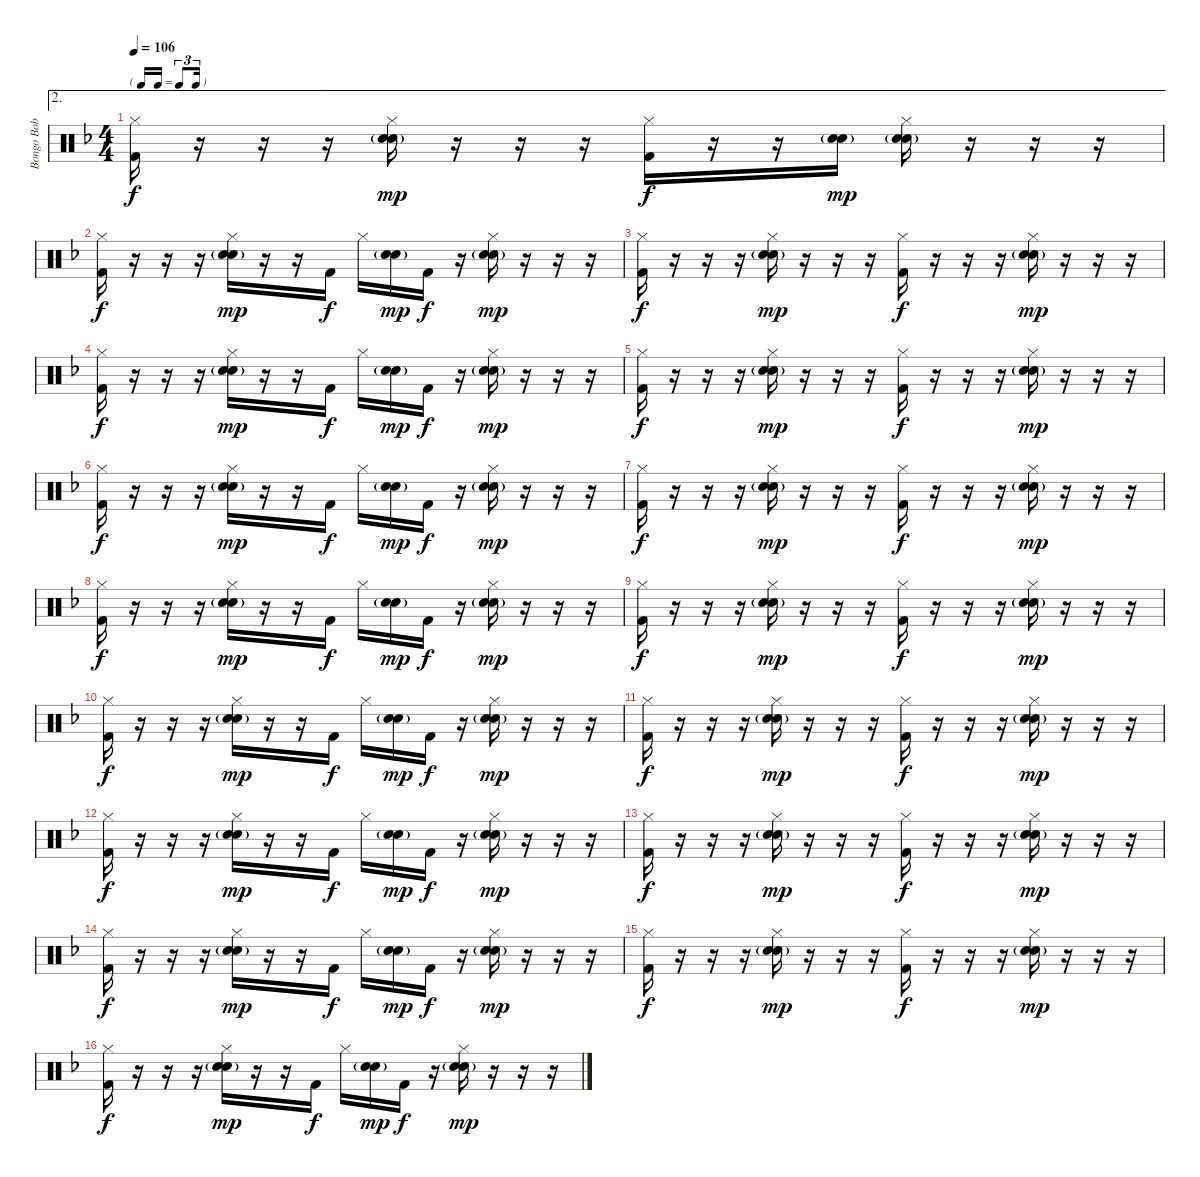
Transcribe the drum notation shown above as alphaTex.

\track ("Bongo Bob Smith (Drums)" "Bongo Bob ") {instrument percussion}
\staff {score}
\articulation defaults
\ae 2
\ts (4 4)
\tf triplet16th
\tempo 106
\clef neutral
\ks f
("Hi-Hat (closed)" "Kick (hit) 2").16{dy f} r.16 r.16 r.16 ("Hi-Hat (closed)" "Snare (hit) 2"{g} "Electric Snare (hit)").16{dy mp} r.16 r.16 r.16 ("Hi-Hat (closed)" "Kick (hit) 2").16{dy f} r.16 r.16 ("Snare (hit) 2"{g} "Electric Snare (hit)").16{dy mp} ("Hi-Hat (closed)" "Snare (hit) 2"{g} "Electric Snare (hit)").16 r.16 r.16 r.16 |
("Hi-Hat (closed)" "Kick (hit) 2").16{dy f} r.16 r.16 r.16 ("Hi-Hat (closed)" "Snare (hit) 2"{g} "Electric Snare (hit)").16{dy mp} r.16 r.16 "Kick (hit) 2".16{dy f} "Hi-Hat (closed)".16 ("Snare (hit) 2"{g} "Electric Snare (hit)").16{dy mp} "Kick (hit) 2".16{dy f} r.16 ("Hi-Hat (closed)" "Snare (hit) 2"{g} "Electric Snare (hit)").16{dy mp} r.16 r.16 r.16 |
("Hi-Hat (closed)" "Kick (hit) 2").16{dy f} r.16 r.16 r.16 ("Hi-Hat (closed)" "Snare (hit) 2"{g} "Electric Snare (hit)").16{dy mp} r.16 r.16 r.16 ("Hi-Hat (closed)" "Kick (hit) 2").16{dy f} r.16 r.16 r.16 ("Hi-Hat (closed)" "Snare (hit) 2"{g} "Electric Snare (hit)").16{dy mp} r.16 r.16 r.16 |
("Hi-Hat (closed)" "Kick (hit) 2").16{dy f} r.16 r.16 r.16 ("Hi-Hat (closed)" "Snare (hit) 2"{g} "Electric Snare (hit)").16{dy mp} r.16 r.16 "Kick (hit) 2".16{dy f} "Hi-Hat (closed)".16 ("Snare (hit) 2"{g} "Electric Snare (hit)").16{dy mp} "Kick (hit) 2".16{dy f} r.16 ("Hi-Hat (closed)" "Snare (hit) 2"{g} "Electric Snare (hit)").16{dy mp} r.16 r.16 r.16 |
("Hi-Hat (closed)" "Kick (hit) 2").16{dy f} r.16 r.16 r.16 ("Hi-Hat (closed)" "Snare (hit) 2"{g} "Electric Snare (hit)").16{dy mp} r.16 r.16 r.16 ("Hi-Hat (closed)" "Kick (hit) 2").16{dy f} r.16 r.16 r.16 ("Hi-Hat (closed)" "Snare (hit) 2"{g} "Electric Snare (hit)").16{dy mp} r.16 r.16 r.16 |
("Hi-Hat (closed)" "Kick (hit) 2").16{dy f} r.16 r.16 r.16 ("Hi-Hat (closed)" "Snare (hit) 2"{g} "Electric Snare (hit)").16{dy mp} r.16 r.16 "Kick (hit) 2".16{dy f} "Hi-Hat (closed)".16 ("Snare (hit) 2"{g} "Electric Snare (hit)").16{dy mp} "Kick (hit) 2".16{dy f} r.16 ("Hi-Hat (closed)" "Snare (hit) 2"{g} "Electric Snare (hit)").16{dy mp} r.16 r.16 r.16 |
("Hi-Hat (closed)" "Kick (hit) 2").16{dy f} r.16 r.16 r.16 ("Hi-Hat (closed)" "Snare (hit) 2"{g} "Electric Snare (hit)").16{dy mp} r.16 r.16 r.16 ("Hi-Hat (closed)" "Kick (hit) 2").16{dy f} r.16 r.16 r.16 ("Hi-Hat (closed)" "Snare (hit) 2"{g} "Electric Snare (hit)").16{dy mp} r.16 r.16 r.16 |
("Hi-Hat (closed)" "Kick (hit) 2").16{dy f} r.16 r.16 r.16 ("Hi-Hat (closed)" "Snare (hit) 2"{g} "Electric Snare (hit)").16{dy mp} r.16 r.16 "Kick (hit) 2".16{dy f} "Hi-Hat (closed)".16 ("Snare (hit) 2"{g} "Electric Snare (hit)").16{dy mp} "Kick (hit) 2".16{dy f} r.16 ("Hi-Hat (closed)" "Snare (hit) 2"{g} "Electric Snare (hit)").16{dy mp} r.16 r.16 r.16 |
("Hi-Hat (closed)" "Kick (hit) 2").16{dy f} r.16 r.16 r.16 ("Hi-Hat (closed)" "Snare (hit) 2"{g} "Electric Snare (hit)").16{dy mp} r.16 r.16 r.16 ("Hi-Hat (closed)" "Kick (hit) 2").16{dy f} r.16 r.16 r.16 ("Hi-Hat (closed)" "Snare (hit) 2"{g} "Electric Snare (hit)").16{dy mp} r.16 r.16 r.16 |
("Hi-Hat (closed)" "Kick (hit) 2").16{dy f} r.16 r.16 r.16 ("Hi-Hat (closed)" "Snare (hit) 2"{g} "Electric Snare (hit)").16{dy mp} r.16 r.16 "Kick (hit) 2".16{dy f} "Hi-Hat (closed)".16 ("Snare (hit) 2"{g} "Electric Snare (hit)").16{dy mp} "Kick (hit) 2".16{dy f} r.16 ("Hi-Hat (closed)" "Snare (hit) 2"{g} "Electric Snare (hit)").16{dy mp} r.16 r.16 r.16 |
("Hi-Hat (closed)" "Kick (hit) 2").16{dy f} r.16 r.16 r.16 ("Hi-Hat (closed)" "Snare (hit) 2"{g} "Electric Snare (hit)").16{dy mp} r.16 r.16 r.16 ("Hi-Hat (closed)" "Kick (hit) 2").16{dy f} r.16 r.16 r.16 ("Hi-Hat (closed)" "Snare (hit) 2"{g} "Electric Snare (hit)").16{dy mp} r.16 r.16 r.16 |
("Hi-Hat (closed)" "Kick (hit) 2").16{dy f} r.16 r.16 r.16 ("Hi-Hat (closed)" "Snare (hit) 2"{g} "Electric Snare (hit)").16{dy mp} r.16 r.16 "Kick (hit) 2".16{dy f} "Hi-Hat (closed)".16 ("Snare (hit) 2"{g} "Electric Snare (hit)").16{dy mp} "Kick (hit) 2".16{dy f} r.16 ("Hi-Hat (closed)" "Snare (hit) 2"{g} "Electric Snare (hit)").16{dy mp} r.16 r.16 r.16 |
("Hi-Hat (closed)" "Kick (hit) 2").16{dy f} r.16 r.16 r.16 ("Hi-Hat (closed)" "Snare (hit) 2"{g} "Electric Snare (hit)").16{dy mp} r.16 r.16 r.16 ("Hi-Hat (closed)" "Kick (hit) 2").16{dy f} r.16 r.16 r.16 ("Hi-Hat (closed)" "Snare (hit) 2"{g} "Electric Snare (hit)").16{dy mp} r.16 r.16 r.16 |
("Hi-Hat (closed)" "Kick (hit) 2").16{dy f} r.16 r.16 r.16 ("Hi-Hat (closed)" "Snare (hit) 2"{g} "Electric Snare (hit)").16{dy mp} r.16 r.16 "Kick (hit) 2".16{dy f} "Hi-Hat (closed)".16 ("Snare (hit) 2"{g} "Electric Snare (hit)").16{dy mp} "Kick (hit) 2".16{dy f} r.16 ("Hi-Hat (closed)" "Snare (hit) 2"{g} "Electric Snare (hit)").16{dy mp} r.16 r.16 r.16 |
("Hi-Hat (closed)" "Kick (hit) 2").16{dy f} r.16 r.16 r.16 ("Hi-Hat (closed)" "Snare (hit) 2"{g} "Electric Snare (hit)").16{dy mp} r.16 r.16 r.16 ("Hi-Hat (closed)" "Kick (hit) 2").16{dy f} r.16 r.16 r.16 ("Hi-Hat (closed)" "Snare (hit) 2"{g} "Electric Snare (hit)").16{dy mp} r.16 r.16 r.16 |
("Hi-Hat (closed)" "Kick (hit) 2").16{dy f} r.16 r.16 r.16 ("Hi-Hat (closed)" "Snare (hit) 2"{g} "Electric Snare (hit)").16{dy mp} r.16 r.16 "Kick (hit) 2".16{dy f} "Hi-Hat (closed)".16 ("Snare (hit) 2"{g} "Electric Snare (hit)").16{dy mp} "Kick (hit) 2".16{dy f} r.16 ("Hi-Hat (closed)" "Snare (hit) 2"{g} "Electric Snare (hit)").16{dy mp} r.16 r.16 r.16
